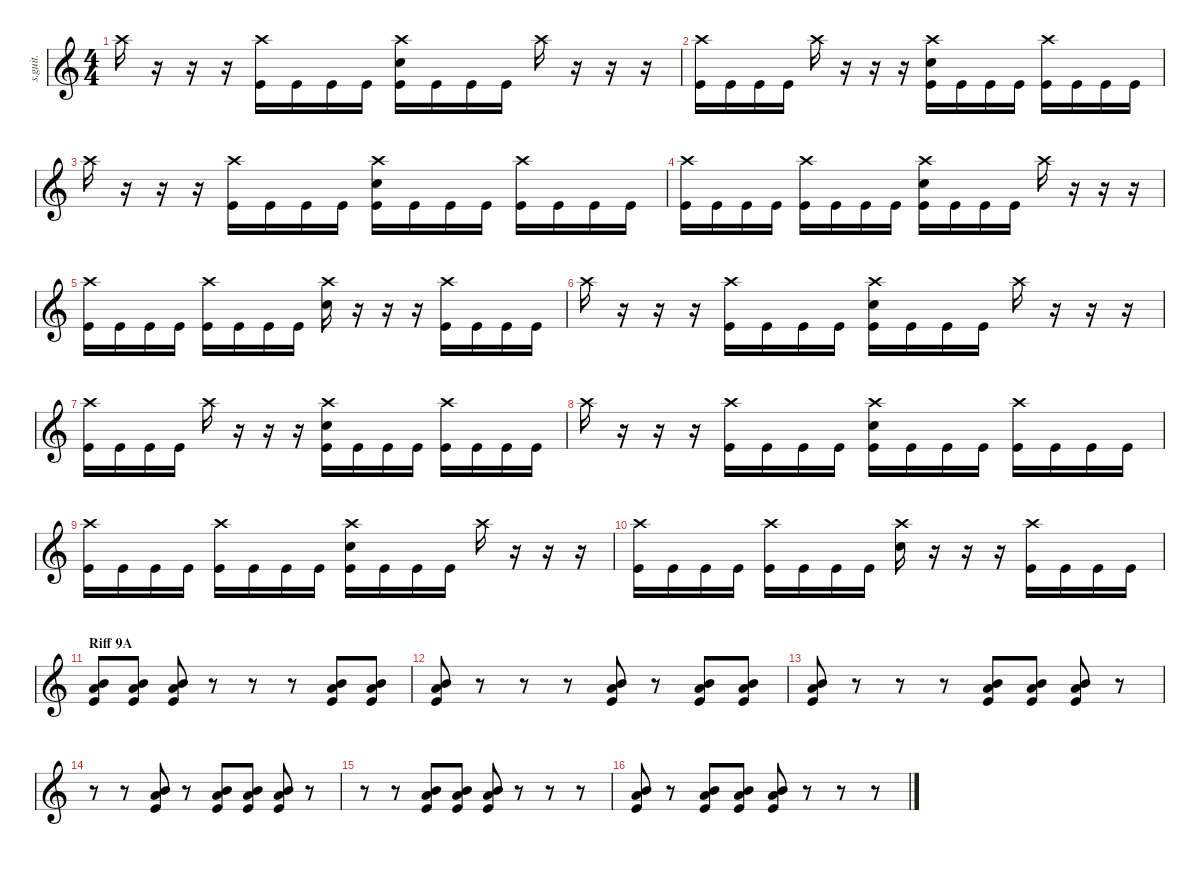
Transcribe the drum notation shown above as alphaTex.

\defaultSystemsLayout 4
\hideDynamics
\bracketExtendMode nobrackets
\track ("Drumkit" "s.guit.") {instrument percussion}
\staff {score}
\articulation defaults
\ts (4 4)
\tempo (133 hide)
\clef g2
\ks c "Crash high (hit)".16{lyrics (0 "") lyrics (1 "") lyrics (2 "") lyrics (3 "") lyrics (4 "") dy f}
r.16 r.16 r.16 ("Crash high (hit)" "Kick (hit)").16{lyrics (0 "") lyrics (1 "") lyrics (2 "") lyrics (3 "") lyrics (4 "")} "Kick (hit)".16{lyrics (0 "") lyrics (1 "") lyrics (2 "") lyrics (3 "") lyrics (4 "")} "Kick (hit)".16{lyrics (0 "") lyrics (1 "") lyrics (2 "") lyrics (3 "") lyrics (4 "")} "Kick (hit)".16{lyrics (0 "") lyrics (1 "") lyrics (2 "") lyrics (3 "") lyrics (4 "")} ("Crash high (hit)" "Snare (hit) 2" "Kick (hit)").16{lyrics (0 "") lyrics (1 "") lyrics (2 "") lyrics (3 "") lyrics (4 "")} "Kick (hit)".16{lyrics (0 "") lyrics (1 "") lyrics (2 "") lyrics (3 "") lyrics (4 "")} "Kick (hit)".16{lyrics (0 "") lyrics (1 "") lyrics (2 "") lyrics (3 "") lyrics (4 "")} "Kick (hit)".16{lyrics (0 "") lyrics (1 "") lyrics (2 "") lyrics (3 "") lyrics (4 "")} "Crash high (hit)".16{lyrics (0 "") lyrics (1 "") lyrics (2 "") lyrics (3 "") lyrics (4 "")} r.16 r.16 r.16 |
("Crash high (hit)" "Kick (hit)").16{lyrics (0 "") lyrics (1 "") lyrics (2 "") lyrics (3 "") lyrics (4 "")} "Kick (hit)".16{lyrics (0 "") lyrics (1 "") lyrics (2 "") lyrics (3 "") lyrics (4 "")} "Kick (hit)".16{lyrics (0 "") lyrics (1 "") lyrics (2 "") lyrics (3 "") lyrics (4 "")} "Kick (hit)".16{lyrics (0 "") lyrics (1 "") lyrics (2 "") lyrics (3 "") lyrics (4 "")} "Crash high (hit)".16{lyrics (0 "") lyrics (1 "") lyrics (2 "") lyrics (3 "") lyrics (4 "")} r.16 r.16 r.16 ("Crash high (hit)" "Snare (hit) 2" "Kick (hit)").16{lyrics (0 "") lyrics (1 "") lyrics (2 "") lyrics (3 "") lyrics (4 "")} "Kick (hit)".16{lyrics (0 "") lyrics (1 "") lyrics (2 "") lyrics (3 "") lyrics (4 "")} "Kick (hit)".16{lyrics (0 "") lyrics (1 "") lyrics (2 "") lyrics (3 "") lyrics (4 "")} "Kick (hit)".16{lyrics (0 "") lyrics (1 "") lyrics (2 "") lyrics (3 "") lyrics (4 "")} ("Crash high (hit)" "Kick (hit)").16{lyrics (0 "") lyrics (1 "") lyrics (2 "") lyrics (3 "") lyrics (4 "")} "Kick (hit)".16{lyrics (0 "") lyrics (1 "") lyrics (2 "") lyrics (3 "") lyrics (4 "")} "Kick (hit)".16{lyrics (0 "") lyrics (1 "") lyrics (2 "") lyrics (3 "") lyrics (4 "")} "Kick (hit)".16{lyrics (0 "") lyrics (1 "") lyrics (2 "") lyrics (3 "") lyrics (4 "")} |
"Crash high (hit)".16{lyrics (0 "") lyrics (1 "") lyrics (2 "") lyrics (3 "") lyrics (4 "")} r.16 r.16 r.16 ("Crash high (hit)" "Kick (hit)").16{lyrics (0 "") lyrics (1 "") lyrics (2 "") lyrics (3 "") lyrics (4 "")} "Kick (hit)".16{lyrics (0 "") lyrics (1 "") lyrics (2 "") lyrics (3 "") lyrics (4 "")} "Kick (hit)".16{lyrics (0 "") lyrics (1 "") lyrics (2 "") lyrics (3 "") lyrics (4 "")} "Kick (hit)".16{lyrics (0 "") lyrics (1 "") lyrics (2 "") lyrics (3 "") lyrics (4 "")} ("Crash high (hit)" "Snare (hit) 2" "Kick (hit)").16{lyrics (0 "") lyrics (1 "") lyrics (2 "") lyrics (3 "") lyrics (4 "")} "Kick (hit)".16{lyrics (0 "") lyrics (1 "") lyrics (2 "") lyrics (3 "") lyrics (4 "")} "Kick (hit)".16{lyrics (0 "") lyrics (1 "") lyrics (2 "") lyrics (3 "") lyrics (4 "")} "Kick (hit)".16{lyrics (0 "") lyrics (1 "") lyrics (2 "") lyrics (3 "") lyrics (4 "")} ("Crash high (hit)" "Kick (hit)").16{lyrics (0 "") lyrics (1 "") lyrics (2 "") lyrics (3 "") lyrics (4 "")} "Kick (hit)".16{lyrics (0 "") lyrics (1 "") lyrics (2 "") lyrics (3 "") lyrics (4 "")} "Kick (hit)".16{lyrics (0 "") lyrics (1 "") lyrics (2 "") lyrics (3 "") lyrics (4 "")} "Kick (hit)".16{lyrics (0 "") lyrics (1 "") lyrics (2 "") lyrics (3 "") lyrics (4 "")} |
("Crash high (hit)" "Kick (hit)").16{lyrics (0 "") lyrics (1 "") lyrics (2 "") lyrics (3 "") lyrics (4 "")} "Kick (hit)".16{lyrics (0 "") lyrics (1 "") lyrics (2 "") lyrics (3 "") lyrics (4 "")} "Kick (hit)".16{lyrics (0 "") lyrics (1 "") lyrics (2 "") lyrics (3 "") lyrics (4 "")} "Kick (hit)".16{lyrics (0 "") lyrics (1 "") lyrics (2 "") lyrics (3 "") lyrics (4 "")} ("Crash high (hit)" "Kick (hit)").16{lyrics (0 "") lyrics (1 "") lyrics (2 "") lyrics (3 "") lyrics (4 "")} "Kick (hit)".16{lyrics (0 "") lyrics (1 "") lyrics (2 "") lyrics (3 "") lyrics (4 "")} "Kick (hit)".16{lyrics (0 "") lyrics (1 "") lyrics (2 "") lyrics (3 "") lyrics (4 "")} "Kick (hit)".16{lyrics (0 "") lyrics (1 "") lyrics (2 "") lyrics (3 "") lyrics (4 "")} ("Crash high (hit)" "Snare (hit) 2" "Kick (hit)").16{lyrics (0 "") lyrics (1 "") lyrics (2 "") lyrics (3 "") lyrics (4 "")} "Kick (hit)".16{lyrics (0 "") lyrics (1 "") lyrics (2 "") lyrics (3 "") lyrics (4 "")} "Kick (hit)".16{lyrics (0 "") lyrics (1 "") lyrics (2 "") lyrics (3 "") lyrics (4 "")} "Kick (hit)".16{lyrics (0 "") lyrics (1 "") lyrics (2 "") lyrics (3 "") lyrics (4 "")} "Crash high (hit)".16{lyrics (0 "") lyrics (1 "") lyrics (2 "") lyrics (3 "") lyrics (4 "")} r.16 r.16 r.16 |
("Crash high (hit)" "Kick (hit)").16{lyrics (0 "") lyrics (1 "") lyrics (2 "") lyrics (3 "") lyrics (4 "")} "Kick (hit)".16{lyrics (0 "") lyrics (1 "") lyrics (2 "") lyrics (3 "") lyrics (4 "")} "Kick (hit)".16{lyrics (0 "") lyrics (1 "") lyrics (2 "") lyrics (3 "") lyrics (4 "")} "Kick (hit)".16{lyrics (0 "") lyrics (1 "") lyrics (2 "") lyrics (3 "") lyrics (4 "")} ("Crash high (hit)" "Kick (hit)").16{lyrics (0 "") lyrics (1 "") lyrics (2 "") lyrics (3 "") lyrics (4 "")} "Kick (hit)".16{lyrics (0 "") lyrics (1 "") lyrics (2 "") lyrics (3 "") lyrics (4 "")} "Kick (hit)".16{lyrics (0 "") lyrics (1 "") lyrics (2 "") lyrics (3 "") lyrics (4 "")} "Kick (hit)".16{lyrics (0 "") lyrics (1 "") lyrics (2 "") lyrics (3 "") lyrics (4 "")} ("Crash high (hit)" "Snare (hit) 2").16{lyrics (0 "") lyrics (1 "") lyrics (2 "") lyrics (3 "") lyrics (4 "")} r.16 r.16 r.16 ("Crash high (hit)" "Kick (hit)").16{lyrics (0 "") lyrics (1 "") lyrics (2 "") lyrics (3 "") lyrics (4 "")} "Kick (hit)".16{lyrics (0 "") lyrics (1 "") lyrics (2 "") lyrics (3 "") lyrics (4 "")} "Kick (hit)".16{lyrics (0 "") lyrics (1 "") lyrics (2 "") lyrics (3 "") lyrics (4 "")} "Kick (hit)".16{lyrics (0 "") lyrics (1 "") lyrics (2 "") lyrics (3 "") lyrics (4 "")} |
"Crash high (hit)".16{lyrics (0 "") lyrics (1 "") lyrics (2 "") lyrics (3 "") lyrics (4 "")} r.16 r.16 r.16 ("Crash high (hit)" "Kick (hit)").16{lyrics (0 "") lyrics (1 "") lyrics (2 "") lyrics (3 "") lyrics (4 "")} "Kick (hit)".16{lyrics (0 "") lyrics (1 "") lyrics (2 "") lyrics (3 "") lyrics (4 "")} "Kick (hit)".16{lyrics (0 "") lyrics (1 "") lyrics (2 "") lyrics (3 "") lyrics (4 "")} "Kick (hit)".16{lyrics (0 "") lyrics (1 "") lyrics (2 "") lyrics (3 "") lyrics (4 "")} ("Crash high (hit)" "Snare (hit) 2" "Kick (hit)").16{lyrics (0 "") lyrics (1 "") lyrics (2 "") lyrics (3 "") lyrics (4 "")} "Kick (hit)".16{lyrics (0 "") lyrics (1 "") lyrics (2 "") lyrics (3 "") lyrics (4 "")} "Kick (hit)".16{lyrics (0 "") lyrics (1 "") lyrics (2 "") lyrics (3 "") lyrics (4 "")} "Kick (hit)".16{lyrics (0 "") lyrics (1 "") lyrics (2 "") lyrics (3 "") lyrics (4 "")} "Crash high (hit)".16{lyrics (0 "") lyrics (1 "") lyrics (2 "") lyrics (3 "") lyrics (4 "")} r.16 r.16 r.16 |
("Crash high (hit)" "Kick (hit)").16{lyrics (0 "") lyrics (1 "") lyrics (2 "") lyrics (3 "") lyrics (4 "")} "Kick (hit)".16{lyrics (0 "") lyrics (1 "") lyrics (2 "") lyrics (3 "") lyrics (4 "")} "Kick (hit)".16{lyrics (0 "") lyrics (1 "") lyrics (2 "") lyrics (3 "") lyrics (4 "")} "Kick (hit)".16{lyrics (0 "") lyrics (1 "") lyrics (2 "") lyrics (3 "") lyrics (4 "")} "Crash high (hit)".16{lyrics (0 "") lyrics (1 "") lyrics (2 "") lyrics (3 "") lyrics (4 "")} r.16 r.16 r.16 ("Crash high (hit)" "Snare (hit) 2" "Kick (hit)").16{lyrics (0 "") lyrics (1 "") lyrics (2 "") lyrics (3 "") lyrics (4 "")} "Kick (hit)".16{lyrics (0 "") lyrics (1 "") lyrics (2 "") lyrics (3 "") lyrics (4 "")} "Kick (hit)".16{lyrics (0 "") lyrics (1 "") lyrics (2 "") lyrics (3 "") lyrics (4 "")} "Kick (hit)".16{lyrics (0 "") lyrics (1 "") lyrics (2 "") lyrics (3 "") lyrics (4 "")} ("Crash high (hit)" "Kick (hit)").16{lyrics (0 "") lyrics (1 "") lyrics (2 "") lyrics (3 "") lyrics (4 "")} "Kick (hit)".16{lyrics (0 "") lyrics (1 "") lyrics (2 "") lyrics (3 "") lyrics (4 "")} "Kick (hit)".16{lyrics (0 "") lyrics (1 "") lyrics (2 "") lyrics (3 "") lyrics (4 "")} "Kick (hit)".16{lyrics (0 "") lyrics (1 "") lyrics (2 "") lyrics (3 "") lyrics (4 "")} |
"Crash high (hit)".16{lyrics (0 "") lyrics (1 "") lyrics (2 "") lyrics (3 "") lyrics (4 "")} r.16 r.16 r.16 ("Crash high (hit)" "Kick (hit)").16{lyrics (0 "") lyrics (1 "") lyrics (2 "") lyrics (3 "") lyrics (4 "")} "Kick (hit)".16{lyrics (0 "") lyrics (1 "") lyrics (2 "") lyrics (3 "") lyrics (4 "")} "Kick (hit)".16{lyrics (0 "") lyrics (1 "") lyrics (2 "") lyrics (3 "") lyrics (4 "")} "Kick (hit)".16{lyrics (0 "") lyrics (1 "") lyrics (2 "") lyrics (3 "") lyrics (4 "")} ("Crash high (hit)" "Snare (hit) 2" "Kick (hit)").16{lyrics (0 "") lyrics (1 "") lyrics (2 "") lyrics (3 "") lyrics (4 "")} "Kick (hit)".16{lyrics (0 "") lyrics (1 "") lyrics (2 "") lyrics (3 "") lyrics (4 "")} "Kick (hit)".16{lyrics (0 "") lyrics (1 "") lyrics (2 "") lyrics (3 "") lyrics (4 "")} "Kick (hit)".16{lyrics (0 "") lyrics (1 "") lyrics (2 "") lyrics (3 "") lyrics (4 "")} ("Crash high (hit)" "Kick (hit)").16{lyrics (0 "") lyrics (1 "") lyrics (2 "") lyrics (3 "") lyrics (4 "")} "Kick (hit)".16{lyrics (0 "") lyrics (1 "") lyrics (2 "") lyrics (3 "") lyrics (4 "")} "Kick (hit)".16{lyrics (0 "") lyrics (1 "") lyrics (2 "") lyrics (3 "") lyrics (4 "")} "Kick (hit)".16{lyrics (0 "") lyrics (1 "") lyrics (2 "") lyrics (3 "") lyrics (4 "")} |
("Crash high (hit)" "Kick (hit)").16{lyrics (0 "") lyrics (1 "") lyrics (2 "") lyrics (3 "") lyrics (4 "")} "Kick (hit)".16{lyrics (0 "") lyrics (1 "") lyrics (2 "") lyrics (3 "") lyrics (4 "")} "Kick (hit)".16{lyrics (0 "") lyrics (1 "") lyrics (2 "") lyrics (3 "") lyrics (4 "")} "Kick (hit)".16{lyrics (0 "") lyrics (1 "") lyrics (2 "") lyrics (3 "") lyrics (4 "")} ("Crash high (hit)" "Kick (hit)").16{lyrics (0 "") lyrics (1 "") lyrics (2 "") lyrics (3 "") lyrics (4 "")} "Kick (hit)".16{lyrics (0 "") lyrics (1 "") lyrics (2 "") lyrics (3 "") lyrics (4 "")} "Kick (hit)".16{lyrics (0 "") lyrics (1 "") lyrics (2 "") lyrics (3 "") lyrics (4 "")} "Kick (hit)".16{lyrics (0 "") lyrics (1 "") lyrics (2 "") lyrics (3 "") lyrics (4 "")} ("Crash high (hit)" "Snare (hit) 2" "Kick (hit)").16{lyrics (0 "") lyrics (1 "") lyrics (2 "") lyrics (3 "") lyrics (4 "")} "Kick (hit)".16{lyrics (0 "") lyrics (1 "") lyrics (2 "") lyrics (3 "") lyrics (4 "")} "Kick (hit)".16{lyrics (0 "") lyrics (1 "") lyrics (2 "") lyrics (3 "") lyrics (4 "")} "Kick (hit)".16{lyrics (0 "") lyrics (1 "") lyrics (2 "") lyrics (3 "") lyrics (4 "")} "Crash high (hit)".16{lyrics (0 "") lyrics (1 "") lyrics (2 "") lyrics (3 "") lyrics (4 "")} r.16 r.16 r.16 |
("Crash high (hit)" "Kick (hit)").16{lyrics (0 "") lyrics (1 "") lyrics (2 "") lyrics (3 "") lyrics (4 "")} "Kick (hit)".16{lyrics (0 "") lyrics (1 "") lyrics (2 "") lyrics (3 "") lyrics (4 "")} "Kick (hit)".16{lyrics (0 "") lyrics (1 "") lyrics (2 "") lyrics (3 "") lyrics (4 "")} "Kick (hit)".16{lyrics (0 "") lyrics (1 "") lyrics (2 "") lyrics (3 "") lyrics (4 "")} ("Crash high (hit)" "Kick (hit)").16{lyrics (0 "") lyrics (1 "") lyrics (2 "") lyrics (3 "") lyrics (4 "")} "Kick (hit)".16{lyrics (0 "") lyrics (1 "") lyrics (2 "") lyrics (3 "") lyrics (4 "")} "Kick (hit)".16{lyrics (0 "") lyrics (1 "") lyrics (2 "") lyrics (3 "") lyrics (4 "")} "Kick (hit)".16{lyrics (0 "") lyrics (1 "") lyrics (2 "") lyrics (3 "") lyrics (4 "")} ("Crash high (hit)" "Snare (hit) 2").16{lyrics (0 "") lyrics (1 "") lyrics (2 "") lyrics (3 "") lyrics (4 "")} r.16 r.16 r.16 ("Crash high (hit)" "Kick (hit)").16{lyrics (0 "") lyrics (1 "") lyrics (2 "") lyrics (3 "") lyrics (4 "")} "Kick (hit)".16{lyrics (0 "") lyrics (1 "") lyrics (2 "") lyrics (3 "") lyrics (4 "")} "Kick (hit)".16{lyrics (0 "") lyrics (1 "") lyrics (2 "") lyrics (3 "") lyrics (4 "")} "Kick (hit)".16{lyrics (0 "") lyrics (1 "") lyrics (2 "") lyrics (3 "") lyrics (4 "")} |
\section ("" "Riff 9A")
("Mid Tom (hit)" "Low Tom (hit)" "Kick (hit)").8{lyrics (0 "") lyrics (1 "") lyrics (2 "") lyrics (3 "") lyrics (4 "")} ("Mid Tom (hit)" "Low Tom (hit)" "Kick (hit)").8{lyrics (0 "") lyrics (1 "") lyrics (2 "") lyrics (3 "") lyrics (4 "")} ("Mid Tom (hit)" "Low Tom (hit)" "Kick (hit)").8{lyrics (0 "") lyrics (1 "") lyrics (2 "") lyrics (3 "") lyrics (4 "")} r.8 r.8 r.8 ("Mid Tom (hit)" "Low Tom (hit)" "Kick (hit)").8{lyrics (0 "") lyrics (1 "") lyrics (2 "") lyrics (3 "") lyrics (4 "")} ("Mid Tom (hit)" "Low Tom (hit)" "Kick (hit)").8{lyrics (0 "") lyrics (1 "") lyrics (2 "") lyrics (3 "") lyrics (4 "")} |
("Mid Tom (hit)" "Low Tom (hit)" "Kick (hit)").8{lyrics (0 "") lyrics (1 "") lyrics (2 "") lyrics (3 "") lyrics (4 "")} r.8 r.8 r.8 ("Mid Tom (hit)" "Low Tom (hit)" "Kick (hit)").8{lyrics (0 "") lyrics (1 "") lyrics (2 "") lyrics (3 "") lyrics (4 "")} r.8 ("Mid Tom (hit)" "Low Tom (hit)" "Kick (hit)").8{lyrics (0 "") lyrics (1 "") lyrics (2 "") lyrics (3 "") lyrics (4 "")} ("Mid Tom (hit)" "Low Tom (hit)" "Kick (hit)").8{lyrics (0 "") lyrics (1 "") lyrics (2 "") lyrics (3 "") lyrics (4 "")} |
("Mid Tom (hit)" "Low Tom (hit)" "Kick (hit)").8{lyrics (0 "") lyrics (1 "") lyrics (2 "") lyrics (3 "") lyrics (4 "")} r.8 r.8 r.8 ("Mid Tom (hit)" "Low Tom (hit)" "Kick (hit)").8{lyrics (0 "") lyrics (1 "") lyrics (2 "") lyrics (3 "") lyrics (4 "")} ("Mid Tom (hit)" "Low Tom (hit)" "Kick (hit)").8{lyrics (0 "") lyrics (1 "") lyrics (2 "") lyrics (3 "") lyrics (4 "")} ("Mid Tom (hit)" "Low Tom (hit)" "Kick (hit)").8{lyrics (0 "") lyrics (1 "") lyrics (2 "") lyrics (3 "") lyrics (4 "")} r.8 |
r.8 r.8 ("Mid Tom (hit)" "Low Tom (hit)" "Kick (hit)").8{lyrics (0 "") lyrics (1 "") lyrics (2 "") lyrics (3 "") lyrics (4 "")} r.8 ("Mid Tom (hit)" "Low Tom (hit)" "Kick (hit)").8{lyrics (0 "") lyrics (1 "") lyrics (2 "") lyrics (3 "") lyrics (4 "")} ("Mid Tom (hit)" "Low Tom (hit)" "Kick (hit)").8{lyrics (0 "") lyrics (1 "") lyrics (2 "") lyrics (3 "") lyrics (4 "")} ("Mid Tom (hit)" "Low Tom (hit)" "Kick (hit)").8{lyrics (0 "") lyrics (1 "") lyrics (2 "") lyrics (3 "") lyrics (4 "")} r.8 |
r.8 r.8 ("Mid Tom (hit)" "Low Tom (hit)" "Kick (hit)").8{lyrics (0 "") lyrics (1 "") lyrics (2 "") lyrics (3 "") lyrics (4 "")} ("Mid Tom (hit)" "Low Tom (hit)" "Kick (hit)").8{lyrics (0 "") lyrics (1 "") lyrics (2 "") lyrics (3 "") lyrics (4 "")} ("Mid Tom (hit)" "Low Tom (hit)" "Kick (hit)").8{lyrics (0 "") lyrics (1 "") lyrics (2 "") lyrics (3 "") lyrics (4 "")} r.8 r.8 r.8 |
("Mid Tom (hit)" "Low Tom (hit)" "Kick (hit)").8{lyrics (0 "") lyrics (1 "") lyrics (2 "") lyrics (3 "") lyrics (4 "")} r.8 ("Mid Tom (hit)" "Low Tom (hit)" "Kick (hit)").8{lyrics (0 "") lyrics (1 "") lyrics (2 "") lyrics (3 "") lyrics (4 "")} ("Mid Tom (hit)" "Low Tom (hit)" "Kick (hit)").8{lyrics (0 "") lyrics (1 "") lyrics (2 "") lyrics (3 "") lyrics (4 "")} ("Mid Tom (hit)" "Low Tom (hit)" "Kick (hit)").8{lyrics (0 "") lyrics (1 "") lyrics (2 "") lyrics (3 "") lyrics (4 "")} r.8 r.8 r.8
